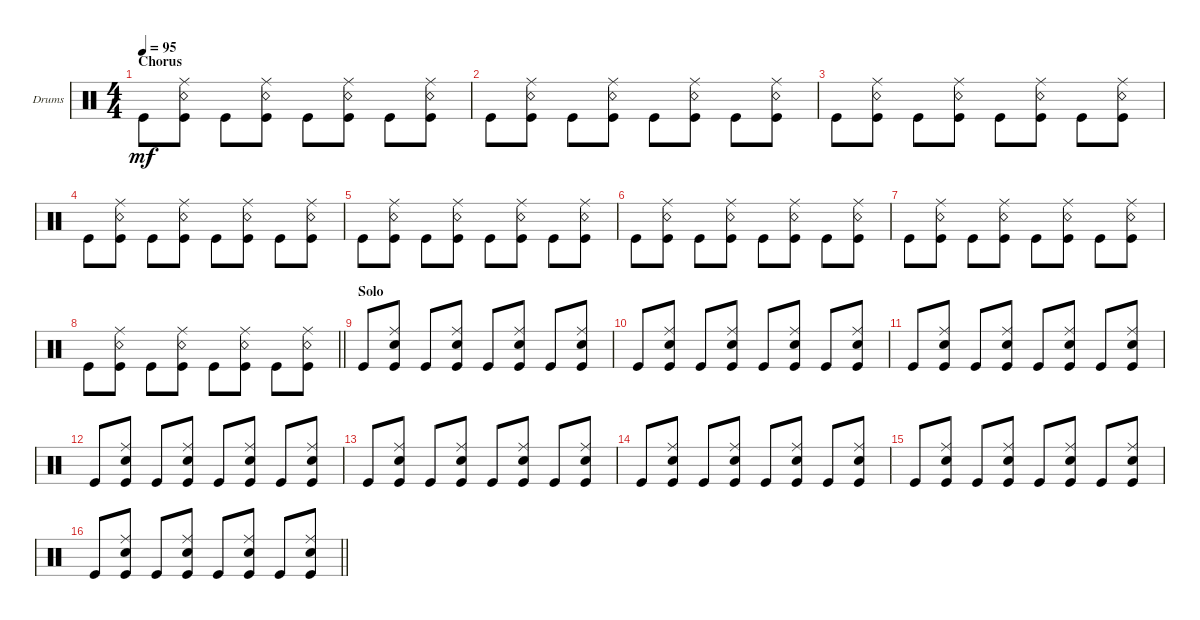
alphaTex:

\bracketExtendMode groupsimilarinstruments
\firstSystemTrackNameOrientation horizontal
\otherSystemsTrackNameOrientation horizontal
\track ("Drumkit" "Drums") {instrument percussion}
\staff {score}
\articulation defaults
\ts (4 4)
\section ("" "Chorus")
\tempo 95
\clef neutral
\scale
0.333333
\ks c "Kick (hit)".8{dy mf}
("Kick (hit)" "Snare (rim shot)" "Ride (middle)").8 "Kick (hit)".8 ("Kick (hit)" "Snare (rim shot)" "Ride (middle)").8 "Kick (hit)".8 ("Kick (hit)" "Snare (rim shot)" "Ride (middle)").8 "Kick (hit)".8 ("Kick (hit)" "Snare (rim shot)" "Ride (middle)").8 |
\scale
0.333333 "Kick (hit)".8 ("Kick (hit)" "Snare (rim shot)" "Ride (middle)").8 "Kick (hit)".8 ("Kick (hit)" "Snare (rim shot)" "Ride (middle)").8 "Kick (hit)".8 ("Kick (hit)" "Snare (rim shot)" "Ride (middle)").8 "Kick (hit)".8 ("Kick (hit)" "Snare (rim shot)" "Ride (middle)").8 |
\scale
0.333333 "Kick (hit)".8 ("Kick (hit)" "Snare (rim shot)" "Ride (middle)").8 "Kick (hit)".8 ("Kick (hit)" "Snare (rim shot)" "Ride (middle)").8 "Kick (hit)".8 ("Kick (hit)" "Snare (rim shot)" "Ride (middle)").8 "Kick (hit)".8 ("Kick (hit)" "Snare (rim shot)" "Ride (middle)").8 |
\scale
0.333333 "Kick (hit)".8 ("Kick (hit)" "Snare (rim shot)" "Ride (middle)").8 "Kick (hit)".8 ("Kick (hit)" "Snare (rim shot)" "Ride (middle)").8 "Kick (hit)".8 ("Kick (hit)" "Snare (rim shot)" "Ride (middle)").8 "Kick (hit)".8 ("Kick (hit)" "Snare (rim shot)" "Ride (middle)").8 |
\scale
0.333333 "Kick (hit)".8 ("Kick (hit)" "Snare (rim shot)" "Ride (middle)").8 "Kick (hit)".8 ("Kick (hit)" "Snare (rim shot)" "Ride (middle)").8 "Kick (hit)".8 ("Kick (hit)" "Snare (rim shot)" "Ride (middle)").8 "Kick (hit)".8 ("Kick (hit)" "Snare (rim shot)" "Ride (middle)").8 |
\scale
0.333333 "Kick (hit)".8 ("Kick (hit)" "Snare (rim shot)" "Ride (middle)").8 "Kick (hit)".8 ("Kick (hit)" "Snare (rim shot)" "Ride (middle)").8 "Kick (hit)".8 ("Kick (hit)" "Snare (rim shot)" "Ride (middle)").8 "Kick (hit)".8 ("Kick (hit)" "Snare (rim shot)" "Ride (middle)").8 |
\scale
0.333333 "Kick (hit)".8 ("Kick (hit)" "Snare (rim shot)" "Ride (middle)").8 "Kick (hit)".8 ("Kick (hit)" "Snare (rim shot)" "Ride (middle)").8 "Kick (hit)".8 ("Kick (hit)" "Snare (rim shot)" "Ride (middle)").8 "Kick (hit)".8 ("Kick (hit)" "Snare (rim shot)" "Ride (middle)").8 |
\scale
0.333333
\barLineRight lightlight "Kick (hit)".8
("Kick (hit)" "Snare (rim shot)" "Ride (middle)").8 "Kick (hit)".8 ("Kick (hit)" "Snare (rim shot)" "Ride (middle)").8 "Kick (hit)".8 ("Kick (hit)" "Snare (rim shot)" "Ride (middle)").8 "Kick (hit)".8 ("Kick (hit)" "Snare (rim shot)" "Ride (middle)").8 |
\section ("" "Solo")
\scale
0.333333 "Kick (hit)".8 ("Kick (hit)" "Snare (hit) 2" "Ride (middle)").8 "Kick (hit)".8 ("Kick (hit)" "Snare (hit) 2" "Ride (middle)").8 "Kick (hit)".8 ("Kick (hit)" "Snare (hit) 2" "Ride (middle)").8 "Kick (hit)".8 ("Kick (hit)" "Snare (hit) 2" "Ride (middle)").8 |
\scale
0.333333 "Kick (hit)".8 ("Kick (hit)" "Snare (hit) 2" "Ride (middle)").8 "Kick (hit)".8 ("Kick (hit)" "Snare (hit) 2" "Ride (middle)").8 "Kick (hit)".8 ("Kick (hit)" "Snare (hit) 2" "Ride (middle)").8 "Kick (hit)".8 ("Kick (hit)" "Snare (hit) 2" "Ride (middle)").8 |
\scale
0.333333 "Kick (hit)".8 ("Kick (hit)" "Snare (hit) 2" "Ride (middle)").8 "Kick (hit)".8 ("Kick (hit)" "Snare (hit) 2" "Ride (middle)").8 "Kick (hit)".8 ("Kick (hit)" "Snare (hit) 2" "Ride (middle)").8 "Kick (hit)".8 ("Kick (hit)" "Snare (hit) 2" "Ride (middle)").8 |
\scale
0.333333 "Kick (hit)".8 ("Kick (hit)" "Snare (hit) 2" "Ride (middle)").8 "Kick (hit)".8 ("Kick (hit)" "Snare (hit) 2" "Ride (middle)").8 "Kick (hit)".8 ("Kick (hit)" "Snare (hit) 2" "Ride (middle)").8 "Kick (hit)".8 ("Kick (hit)" "Snare (hit) 2" "Ride (middle)").8 |
\scale
0.333333 "Kick (hit)".8 ("Kick (hit)" "Snare (hit) 2" "Ride (middle)").8 "Kick (hit)".8 ("Kick (hit)" "Snare (hit) 2" "Ride (middle)").8 "Kick (hit)".8 ("Kick (hit)" "Snare (hit) 2" "Ride (middle)").8 "Kick (hit)".8 ("Kick (hit)" "Snare (hit) 2" "Ride (middle)").8 |
\scale
0.333333 "Kick (hit)".8 ("Kick (hit)" "Snare (hit) 2" "Ride (middle)").8 "Kick (hit)".8 ("Kick (hit)" "Snare (hit) 2" "Ride (middle)").8 "Kick (hit)".8 ("Kick (hit)" "Snare (hit) 2" "Ride (middle)").8 "Kick (hit)".8 ("Kick (hit)" "Snare (hit) 2" "Ride (middle)").8 |
\scale
0.333333 "Kick (hit)".8 ("Kick (hit)" "Snare (hit) 2" "Ride (middle)").8 "Kick (hit)".8 ("Kick (hit)" "Snare (hit) 2" "Ride (middle)").8 "Kick (hit)".8 ("Kick (hit)" "Snare (hit) 2" "Ride (middle)").8 "Kick (hit)".8 ("Kick (hit)" "Snare (hit) 2" "Ride (middle)").8 |
\scale
0.333333
\barLineRight lightlight "Kick (hit)".8
("Kick (hit)" "Snare (hit) 2" "Ride (middle)").8 "Kick (hit)".8 ("Kick (hit)" "Snare (hit) 2" "Ride (middle)").8 "Kick (hit)".8 ("Kick (hit)" "Snare (hit) 2" "Ride (middle)").8 "Kick (hit)".8 ("Kick (hit)" "Snare (hit) 2" "Ride (middle)").8
